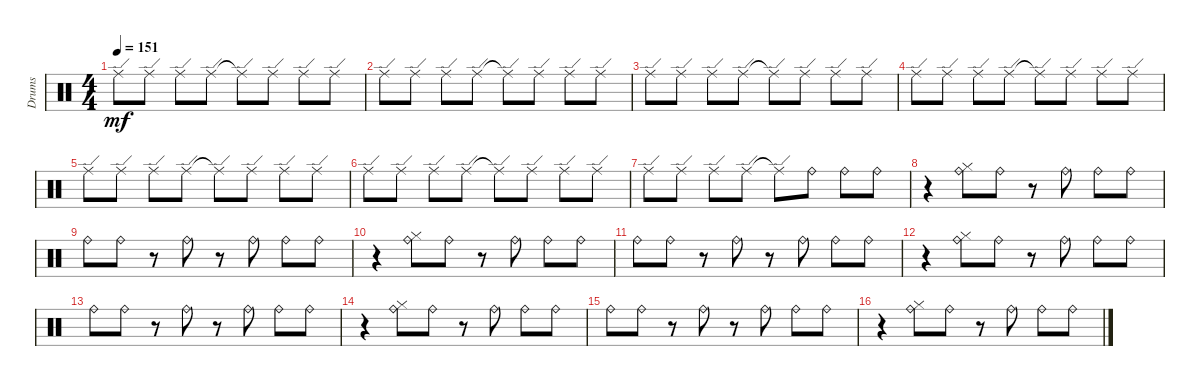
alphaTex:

\bracketExtendMode groupsimilarinstruments
\track ("Drumkit" "Drums") {instrument percussion}
\staff {score}
\articulation defaults
\ts (4 4)
\tempo 151
\clef neutral
\ks aminor "Ride (edge)".8{dy mf} "Ride (edge)".8 "Ride (edge)".8 "Ride (edge)".8 "Ride (edge)"{t}.8 "Ride (edge)".8 "Ride (edge)".8 "Ride (edge)".8
|
"Ride (edge)".8 "Ride (edge)".8 "Ride (edge)".8 "Ride (edge)".8 "Ride (edge)"{t}.8 "Ride (edge)".8 "Ride (edge)".8 "Ride (edge)".8 |
"Ride (edge)".8 "Ride (edge)".8 "Ride (edge)".8 "Ride (edge)".8 "Ride (edge)"{t}.8 "Ride (edge)".8 "Ride (edge)".8 "Ride (edge)".8 |
"Ride (edge)".8 "Ride (edge)".8 "Ride (edge)".8 "Ride (edge)".8 "Ride (edge)"{t}.8 "Ride (edge)".8 "Ride (edge)".8 "Ride (edge)".8 |
"Ride (edge)".8 "Ride (edge)".8 "Ride (edge)".8 "Ride (edge)".8 "Ride (edge)"{t}.8 "Ride (edge)".8 "Ride (edge)".8 "Ride (edge)".8 |
"Ride (edge)".8 "Ride (edge)".8 "Ride (edge)".8 "Ride (edge)".8 "Ride (edge)"{t}.8 "Ride (edge)".8 "Ride (edge)".8 "Ride (edge)".8 |
"Ride (edge)".8 "Ride (edge)".8 "Ride (edge)".8 "Ride (edge)".8 "Ride (edge)"{t}.8 "Ride (bell)".8 "Ride (bell)".8 "Ride (bell)".8 |
r.4 ("Ride (bell)" "Hi-Hat (closed)").8 "Ride (bell)".8 r.8 "Ride (bell)".8 "Ride (bell)".8 "Ride (bell)".8 |
"Ride (bell)".8 "Ride (bell)".8 r.8 "Ride (bell)".8 r.8 "Ride (bell)".8 "Ride (bell)".8 "Ride (bell)".8 |
r.4 ("Ride (bell)" "Hi-Hat (closed)").8 "Ride (bell)".8 r.8 "Ride (bell)".8 "Ride (bell)".8 "Ride (bell)".8 |
"Ride (bell)".8 "Ride (bell)".8 r.8 "Ride (bell)".8 r.8 "Ride (bell)".8 "Ride (bell)".8 "Ride (bell)".8 |
r.4 ("Ride (bell)" "Hi-Hat (closed)").8 "Ride (bell)".8 r.8 "Ride (bell)".8 "Ride (bell)".8 "Ride (bell)".8 |
"Ride (bell)".8 "Ride (bell)".8 r.8 "Ride (bell)".8 r.8 "Ride (bell)".8 "Ride (bell)".8 "Ride (bell)".8 |
r.4 ("Ride (bell)" "Hi-Hat (closed)").8 "Ride (bell)".8 r.8 "Ride (bell)".8 "Ride (bell)".8 "Ride (bell)".8 |
"Ride (bell)".8 "Ride (bell)".8 r.8 "Ride (bell)".8 r.8 "Ride (bell)".8 "Ride (bell)".8 "Ride (bell)".8 |
r.4 ("Ride (bell)" "Hi-Hat (closed)").8 "Ride (bell)".8 r.8 "Ride (bell)".8 "Ride (bell)".8 "Ride (bell)".8
